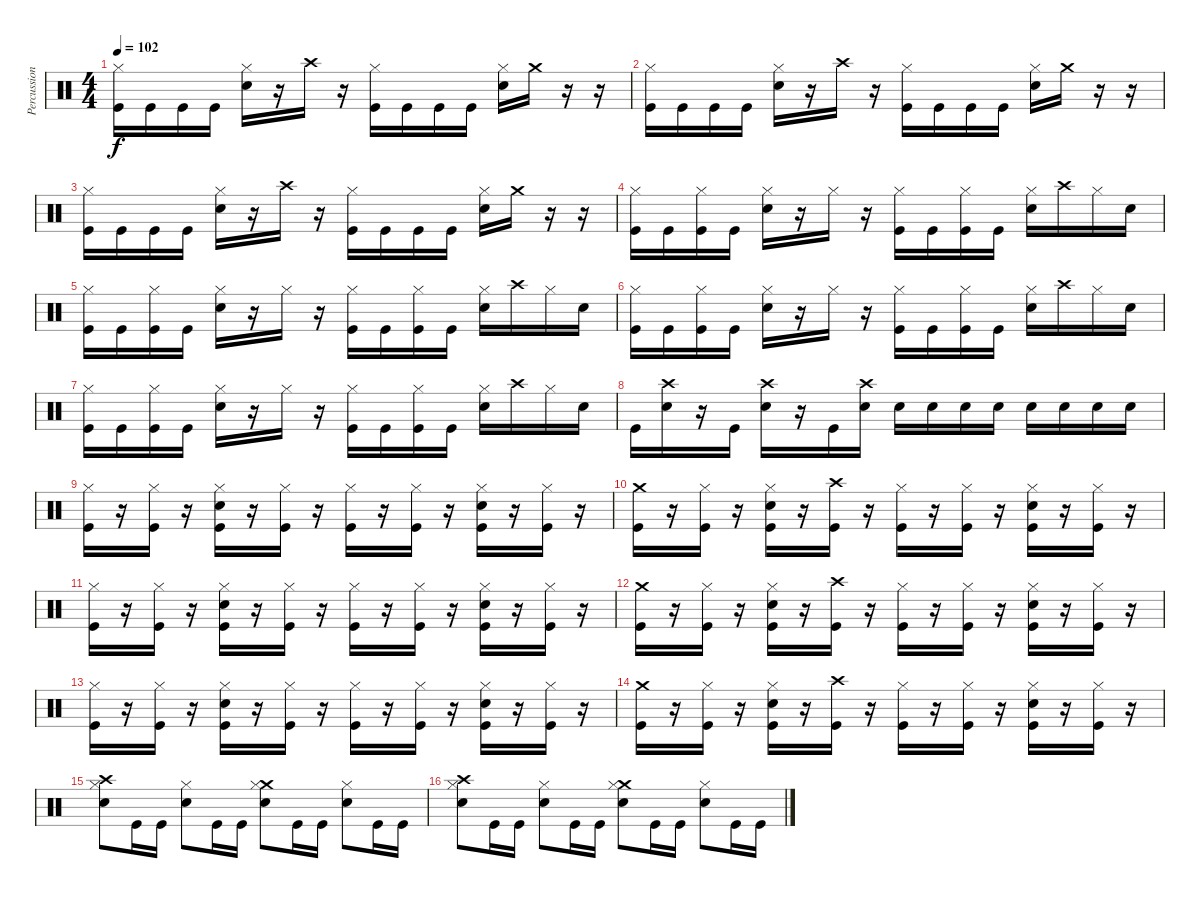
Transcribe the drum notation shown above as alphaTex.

\track ("Percussion" "Percussion") {instrument percussion}
\staff {score}
\articulation defaults
\ts (4 4)
\tempo 102
\clef neutral
\ks c
("Hi-Hat (closed)" "Kick (hit)").16{dy f} "Kick (hit)".16 "Kick (hit)".16 "Kick (hit)".16 ("Hi-Hat (closed)" "Snare (hit) 2").16 r.16 "Crash high (hit)".16 r.16 ("Hi-Hat (closed)" "Kick (hit)").16 "Kick (hit)".16 "Kick (hit)".16 "Kick (hit)".16 ("Hi-Hat (closed)" "Snare (hit) 2").16 "Crash medium (hit)".16 r.16 r.16 |
("Hi-Hat (closed)" "Kick (hit)").16 "Kick (hit)".16 "Kick (hit)".16 "Kick (hit)".16 ("Hi-Hat (closed)" "Snare (hit) 2").16 r.16 "Crash high (hit)".16 r.16 ("Hi-Hat (closed)" "Kick (hit)").16 "Kick (hit)".16 "Kick (hit)".16 "Kick (hit)".16 ("Hi-Hat (closed)" "Snare (hit) 2").16 "Crash medium (hit)".16 r.16 r.16 |
("Hi-Hat (closed)" "Kick (hit)").16 "Kick (hit)".16 "Kick (hit)".16 "Kick (hit)".16 ("Hi-Hat (closed)" "Snare (hit) 2").16 r.16 "Crash high (hit)".16 r.16 ("Hi-Hat (closed)" "Kick (hit)").16 "Kick (hit)".16 "Kick (hit)".16 "Kick (hit)".16 ("Hi-Hat (closed)" "Snare (hit) 2").16 "Crash medium (hit)".16 r.16 r.16 |
("Hi-Hat (closed)" "Kick (hit)").16 "Kick (hit)".16 ("Hi-Hat (closed)" "Kick (hit)").16 "Kick (hit)".16 ("Hi-Hat (closed)" "Snare (hit) 2").16 r.16 "Hi-Hat (closed)".16 r.16 ("Hi-Hat (closed)" "Kick (hit)").16 "Kick (hit)".16 ("Hi-Hat (closed)" "Kick (hit)").16 "Kick (hit)".16 ("Hi-Hat (closed)" "Snare (hit) 2").16 "Crash high (hit)".16 "Hi-Hat (closed)".16 "Snare (hit) 2".16 |
("Hi-Hat (closed)" "Kick (hit)").16 "Kick (hit)".16 ("Hi-Hat (closed)" "Kick (hit)").16 "Kick (hit)".16 ("Hi-Hat (closed)" "Snare (hit) 2").16 r.16 "Hi-Hat (closed)".16 r.16 ("Hi-Hat (closed)" "Kick (hit)").16 "Kick (hit)".16 ("Hi-Hat (closed)" "Kick (hit)").16 "Kick (hit)".16 ("Hi-Hat (closed)" "Snare (hit) 2").16 "Crash high (hit)".16 "Hi-Hat (closed)".16 "Snare (hit) 2".16 |
("Hi-Hat (closed)" "Kick (hit)").16 "Kick (hit)".16 ("Hi-Hat (closed)" "Kick (hit)").16 "Kick (hit)".16 ("Hi-Hat (closed)" "Snare (hit) 2").16 r.16 "Hi-Hat (closed)".16 r.16 ("Hi-Hat (closed)" "Kick (hit)").16 "Kick (hit)".16 ("Hi-Hat (closed)" "Kick (hit)").16 "Kick (hit)".16 ("Hi-Hat (closed)" "Snare (hit) 2").16 "Crash high (hit)".16 "Hi-Hat (closed)".16 "Snare (hit) 2".16 |
("Hi-Hat (closed)" "Kick (hit)").16 "Kick (hit)".16 ("Hi-Hat (closed)" "Kick (hit)").16 "Kick (hit)".16 ("Hi-Hat (closed)" "Snare (hit) 2").16 r.16 "Hi-Hat (closed)".16 r.16 ("Hi-Hat (closed)" "Kick (hit)").16 "Kick (hit)".16 ("Hi-Hat (closed)" "Kick (hit)").16 "Kick (hit)".16 ("Hi-Hat (closed)" "Snare (hit) 2").16 "Crash high (hit)".16 "Hi-Hat (closed)".16 "Snare (hit) 2".16 |
"Kick (hit)".16 ("Crash high (hit)" "Snare (hit) 2").16 r.16 "Kick (hit)".16 ("Crash high (hit)" "Snare (hit) 2").16 r.16 "Kick (hit)".16 ("Snare (hit) 2" "Crash high (hit)").16 "Snare (hit) 2".16 "Snare (hit) 2".16 "Snare (hit) 2".16 "Snare (hit) 2".16 "Snare (hit) 2".16 "Snare (hit) 2".16 "Snare (hit) 2".16 "Snare (hit) 2".16 |
("Hi-Hat (closed)" "Kick (hit)").16 r.16 ("Hi-Hat (closed)" "Kick (hit)").16 r.16 ("Hi-Hat (closed)" "Snare (hit) 2" "Kick (hit)").16 r.16 ("Hi-Hat (closed)" "Kick (hit)").16 r.16 ("Hi-Hat (closed)" "Kick (hit)").16 r.16 ("Hi-Hat (closed)" "Kick (hit)").16 r.16 ("Hi-Hat (closed)" "Snare (hit) 2" "Kick (hit)").16 r.16 ("Hi-Hat (closed)" "Kick (hit)").16 r.16 |
("Crash medium (hit)" "Kick (hit)").16 r.16 ("Hi-Hat (closed)" "Kick (hit)").16 r.16 ("Hi-Hat (closed)" "Snare (hit) 2" "Kick (hit)").16 r.16 ("Crash high (hit)" "Kick (hit)").16 r.16 ("Hi-Hat (closed)" "Kick (hit)").16 r.16 ("Hi-Hat (closed)" "Kick (hit)").16 r.16 ("Hi-Hat (closed)" "Snare (hit) 2" "Kick (hit)").16 r.16 ("Hi-Hat (closed)" "Kick (hit)").16 r.16 |
("Hi-Hat (closed)" "Kick (hit)").16 r.16 ("Hi-Hat (closed)" "Kick (hit)").16 r.16 ("Hi-Hat (closed)" "Snare (hit) 2" "Kick (hit)").16 r.16 ("Hi-Hat (closed)" "Kick (hit)").16 r.16 ("Hi-Hat (closed)" "Kick (hit)").16 r.16 ("Hi-Hat (closed)" "Kick (hit)").16 r.16 ("Hi-Hat (closed)" "Snare (hit) 2" "Kick (hit)").16 r.16 ("Hi-Hat (closed)" "Kick (hit)").16 r.16 |
("Crash medium (hit)" "Kick (hit)").16 r.16 ("Hi-Hat (closed)" "Kick (hit)").16 r.16 ("Hi-Hat (closed)" "Snare (hit) 2" "Kick (hit)").16 r.16 ("Crash high (hit)" "Kick (hit)").16 r.16 ("Hi-Hat (closed)" "Kick (hit)").16 r.16 ("Hi-Hat (closed)" "Kick (hit)").16 r.16 ("Hi-Hat (closed)" "Snare (hit) 2" "Kick (hit)").16 r.16 ("Hi-Hat (closed)" "Kick (hit)").16 r.16 |
("Hi-Hat (closed)" "Kick (hit)").16 r.16 ("Hi-Hat (closed)" "Kick (hit)").16 r.16 ("Hi-Hat (closed)" "Snare (hit) 2" "Kick (hit)").16 r.16 ("Hi-Hat (closed)" "Kick (hit)").16 r.16 ("Hi-Hat (closed)" "Kick (hit)").16 r.16 ("Hi-Hat (closed)" "Kick (hit)").16 r.16 ("Hi-Hat (closed)" "Snare (hit) 2" "Kick (hit)").16 r.16 ("Hi-Hat (closed)" "Kick (hit)").16 r.16 |
("Crash medium (hit)" "Kick (hit)").16 r.16 ("Hi-Hat (closed)" "Kick (hit)").16 r.16 ("Hi-Hat (closed)" "Snare (hit) 2" "Kick (hit)").16 r.16 ("Crash high (hit)" "Kick (hit)").16 r.16 ("Hi-Hat (closed)" "Kick (hit)").16 r.16 ("Hi-Hat (closed)" "Kick (hit)").16 r.16 ("Hi-Hat (closed)" "Snare (hit) 2" "Kick (hit)").16 r.16 ("Hi-Hat (closed)" "Kick (hit)").16 r.16 |
("Crash high (hit)" "Hi-Hat (closed)" "Snare (hit) 2").8 "Kick (hit)".16 "Kick (hit)".16 ("Hi-Hat (closed)" "Snare (hit) 2").8 "Kick (hit)".16 "Kick (hit)".16 ("Crash medium (hit)" "Hi-Hat (closed)" "Snare (hit) 2").8 "Kick (hit)".16 "Kick (hit)".16 ("Hi-Hat (closed)" "Snare (hit) 2").8 "Kick (hit)".16 "Kick (hit)".16 |
("Crash high (hit)" "Hi-Hat (closed)" "Snare (hit) 2").8 "Kick (hit)".16 "Kick (hit)".16 ("Hi-Hat (closed)" "Snare (hit) 2").8 "Kick (hit)".16 "Kick (hit)".16 ("Crash medium (hit)" "Hi-Hat (closed)" "Snare (hit) 2").8 "Kick (hit)".16 "Kick (hit)".16 ("Hi-Hat (closed)" "Snare (hit) 2").8 "Kick (hit)".16 "Kick (hit)".16
